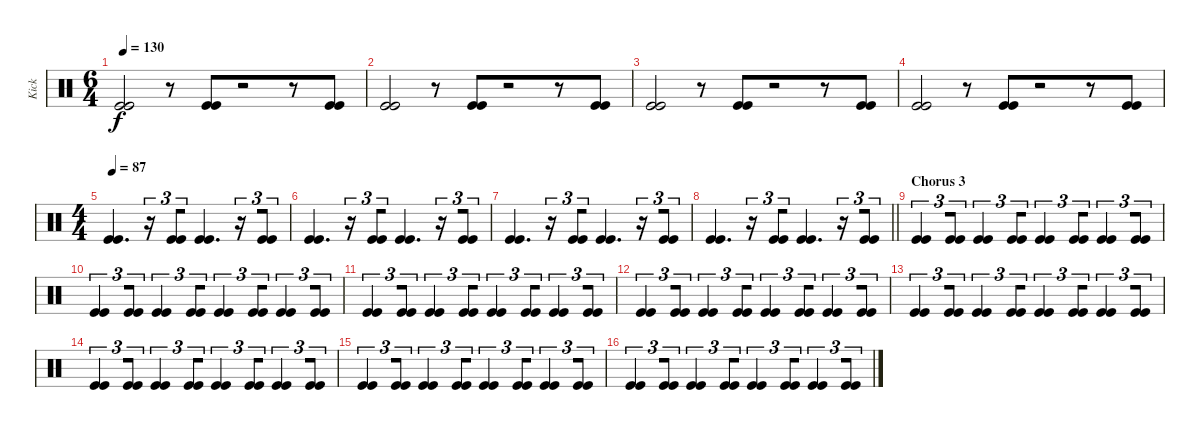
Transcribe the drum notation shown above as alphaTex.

\track ("Kick" "Kick") {instrument percussion bank 158}
\staff {score}
\articulation defaults
\ts (6 4)
\tempo 130
\clef neutral
\ks c
("Kick (hit)" "Kick (hit)").2{dy f beam merge} r.8{beam merge} ("Kick (hit)" "Kick (hit)").8{beam merge} r.2{beam merge} r.8{beam merge} ("Kick (hit)" "Kick (hit)").8 |
("Kick (hit)" "Kick (hit)").2{beam merge} r.8{beam merge} ("Kick (hit)" "Kick (hit)").8{beam merge} r.2{beam merge} r.8{beam merge} ("Kick (hit)" "Kick (hit)").8 |
("Kick (hit)" "Kick (hit)").2{beam merge} r.8{beam merge} ("Kick (hit)" "Kick (hit)").8{beam merge} r.2{beam merge} r.8{beam merge} ("Kick (hit)" "Kick (hit)").8 |
("Kick (hit)" "Kick (hit)").2{beam merge} r.8{beam merge} ("Kick (hit)" "Kick (hit)").8{beam merge} r.2{beam merge} r.8{beam merge} ("Kick (hit)" "Kick (hit)").8 |
\ts (4 4)
\tempo 87
("Kick (hit)" "Kick (hit)").4{d beam merge} r.16{tu (3 2)} ("Kick (hit)" "Kick (hit)").8{tu (3 2) beam merge} ("Kick (hit)" "Kick (hit)").4{d beam merge} r.16{tu (3 2)} ("Kick (hit)" "Kick (hit)").8{tu (3 2)} |
("Kick (hit)" "Kick (hit)").4{d beam merge} r.16{tu (3 2)} ("Kick (hit)" "Kick (hit)").8{tu (3 2) beam merge} ("Kick (hit)" "Kick (hit)").4{d beam merge} r.16{tu (3 2)} ("Kick (hit)" "Kick (hit)").8{tu (3 2)} |
("Kick (hit)" "Kick (hit)").4{d beam merge} r.16{tu (3 2)} ("Kick (hit)" "Kick (hit)").8{tu (3 2) beam merge} ("Kick (hit)" "Kick (hit)").4{d beam merge} r.16{tu (3 2)} ("Kick (hit)" "Kick (hit)").8{tu (3 2)} |
\barLineRight lightlight
("Kick (hit)" "Kick (hit)").4{d beam merge} r.16{tu (3 2)} ("Kick (hit)" "Kick (hit)").8{tu (3 2) beam merge} ("Kick (hit)" "Kick (hit)").4{d beam merge} r.16{tu (3 2)} ("Kick (hit)" "Kick (hit)").8{tu (3 2)} |
\section ("" "Chorus 3")
("Kick (hit)" "Kick (hit)").4{tu (3 2) beam merge} ("Kick (hit)" "Kick (hit)").8{tu (3 2)} ("Kick (hit)" "Kick (hit)").4{tu (3 2)} ("Kick (hit)" "Kick (hit)").8{tu (3 2) beam merge} ("Kick (hit)" "Kick (hit)").4{tu (3 2)} ("Kick (hit)" "Kick (hit)").8{tu (3 2) beam merge} ("Kick (hit)" "Kick (hit)").4{tu (3 2) beam merge} ("Kick (hit)" "Kick (hit)").8{tu (3 2)} |
("Kick (hit)" "Kick (hit)").4{tu (3 2) beam merge} ("Kick (hit)" "Kick (hit)").8{tu (3 2)} ("Kick (hit)" "Kick (hit)").4{tu (3 2)} ("Kick (hit)" "Kick (hit)").8{tu (3 2) beam merge} ("Kick (hit)" "Kick (hit)").4{tu (3 2)} ("Kick (hit)" "Kick (hit)").8{tu (3 2) beam merge} ("Kick (hit)" "Kick (hit)").4{tu (3 2) beam merge} ("Kick (hit)" "Kick (hit)").8{tu (3 2)} |
("Kick (hit)" "Kick (hit)").4{tu (3 2) beam merge} ("Kick (hit)" "Kick (hit)").8{tu (3 2)} ("Kick (hit)" "Kick (hit)").4{tu (3 2)} ("Kick (hit)" "Kick (hit)").8{tu (3 2) beam merge} ("Kick (hit)" "Kick (hit)").4{tu (3 2)} ("Kick (hit)" "Kick (hit)").8{tu (3 2) beam merge} ("Kick (hit)" "Kick (hit)").4{tu (3 2) beam merge} ("Kick (hit)" "Kick (hit)").8{tu (3 2)} |
("Kick (hit)" "Kick (hit)").4{tu (3 2) beam merge} ("Kick (hit)" "Kick (hit)").8{tu (3 2)} ("Kick (hit)" "Kick (hit)").4{tu (3 2)} ("Kick (hit)" "Kick (hit)").8{tu (3 2) beam merge} ("Kick (hit)" "Kick (hit)").4{tu (3 2)} ("Kick (hit)" "Kick (hit)").8{tu (3 2) beam merge} ("Kick (hit)" "Kick (hit)").4{tu (3 2) beam merge} ("Kick (hit)" "Kick (hit)").8{tu (3 2)} |
("Kick (hit)" "Kick (hit)").4{tu (3 2) beam merge} ("Kick (hit)" "Kick (hit)").8{tu (3 2)} ("Kick (hit)" "Kick (hit)").4{tu (3 2)} ("Kick (hit)" "Kick (hit)").8{tu (3 2) beam merge} ("Kick (hit)" "Kick (hit)").4{tu (3 2)} ("Kick (hit)" "Kick (hit)").8{tu (3 2) beam merge} ("Kick (hit)" "Kick (hit)").4{tu (3 2) beam merge} ("Kick (hit)" "Kick (hit)").8{tu (3 2)} |
("Kick (hit)" "Kick (hit)").4{tu (3 2) beam merge} ("Kick (hit)" "Kick (hit)").8{tu (3 2)} ("Kick (hit)" "Kick (hit)").4{tu (3 2)} ("Kick (hit)" "Kick (hit)").8{tu (3 2) beam merge} ("Kick (hit)" "Kick (hit)").4{tu (3 2)} ("Kick (hit)" "Kick (hit)").8{tu (3 2) beam merge} ("Kick (hit)" "Kick (hit)").4{tu (3 2) beam merge} ("Kick (hit)" "Kick (hit)").8{tu (3 2)} |
("Kick (hit)" "Kick (hit)").4{tu (3 2) beam merge} ("Kick (hit)" "Kick (hit)").8{tu (3 2)} ("Kick (hit)" "Kick (hit)").4{tu (3 2)} ("Kick (hit)" "Kick (hit)").8{tu (3 2) beam merge} ("Kick (hit)" "Kick (hit)").4{tu (3 2)} ("Kick (hit)" "Kick (hit)").8{tu (3 2) beam merge} ("Kick (hit)" "Kick (hit)").4{tu (3 2) beam merge} ("Kick (hit)" "Kick (hit)").8{tu (3 2)} |
("Kick (hit)" "Kick (hit)").4{tu (3 2) beam merge} ("Kick (hit)" "Kick (hit)").8{tu (3 2)} ("Kick (hit)" "Kick (hit)").4{tu (3 2)} ("Kick (hit)" "Kick (hit)").8{tu (3 2) beam merge} ("Kick (hit)" "Kick (hit)").4{tu (3 2)} ("Kick (hit)" "Kick (hit)").8{tu (3 2) beam merge} ("Kick (hit)" "Kick (hit)").4{tu (3 2) beam merge} ("Kick (hit)" "Kick (hit)").8{tu (3 2)}
